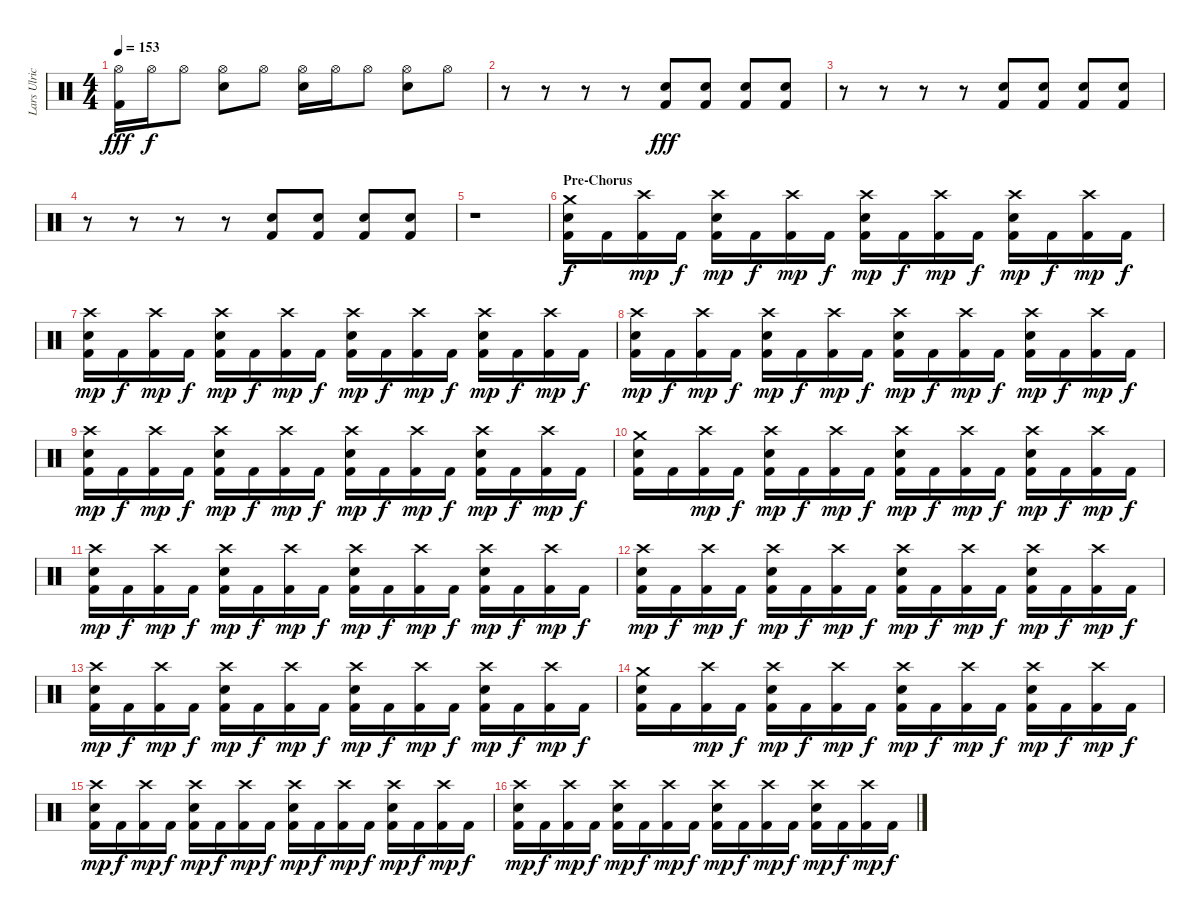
\track ("Lars Ulrich (Drums)" "Lars Ulric") {instrument percussion}
\staff {score}
\articulation defaults
\ts (4 4)
\tempo 153
\clef neutral
\ks c
("Hi-Hat (open)" "Kick (hit) 2").16{dy fff} "Hi-Hat (open)".16{dy f} "Hi-Hat (open)".8 ("Hi-Hat (open)" "Electric Snare (hit)").8 "Hi-Hat (open)".8 ("Hi-Hat (open)" "Electric Snare (hit)").16 "Hi-Hat (open)".16 "Hi-Hat (open)".8 ("Hi-Hat (open)" "Electric Snare (hit)").8 "Hi-Hat (open)".8 |
r.8 r.8 r.8 r.8 ("Electric Snare (hit)" "Kick (hit) 2").8{dy fff} ("Electric Snare (hit)" "Kick (hit) 2").8 ("Electric Snare (hit)" "Kick (hit) 2").8 ("Electric Snare (hit)" "Kick (hit) 2").8 |
r.8 r.8 r.8 r.8 ("Electric Snare (hit)" "Kick (hit) 2").8 ("Electric Snare (hit)" "Kick (hit) 2").8 ("Electric Snare (hit)" "Kick (hit) 2").8 ("Electric Snare (hit)" "Kick (hit) 2").8 |
r.8 r.8 r.8 r.8 ("Electric Snare (hit)" "Kick (hit) 2").8 ("Electric Snare (hit)" "Kick (hit) 2").8 ("Electric Snare (hit)" "Kick (hit) 2").8 ("Electric Snare (hit)" "Kick (hit) 2").8 |
r.1 |
\section ("" "Pre-Chorus")
("Crash medium (hit)" "Electric Snare (hit)" "Kick (hit) 2").16{dy f} "Kick (hit) 2".16 ("Crash high (hit)" "Kick (hit) 2").16{dy mp} "Kick (hit) 2".16{dy f} ("Crash high (hit)" "Electric Snare (hit)" "Kick (hit) 2").16{dy mp} "Kick (hit) 2".16{dy f} ("Crash high (hit)" "Kick (hit) 2").16{dy mp} "Kick (hit) 2".16{dy f} ("Crash high (hit)" "Electric Snare (hit)" "Kick (hit) 2").16{dy mp} "Kick (hit) 2".16{dy f} ("Crash high (hit)" "Kick (hit) 2").16{dy mp} "Kick (hit) 2".16{dy f} ("Crash high (hit)" "Electric Snare (hit)" "Kick (hit) 2").16{dy mp} "Kick (hit) 2".16{dy f} ("Crash high (hit)" "Kick (hit) 2").16{dy mp} "Kick (hit) 2".16{dy f} |
("Crash high (hit)" "Electric Snare (hit)" "Kick (hit) 2").16{dy mp} "Kick (hit) 2".16{dy f} ("Crash high (hit)" "Kick (hit) 2").16{dy mp} "Kick (hit) 2".16{dy f} ("Crash high (hit)" "Electric Snare (hit)" "Kick (hit) 2").16{dy mp} "Kick (hit) 2".16{dy f} ("Crash high (hit)" "Kick (hit) 2").16{dy mp} "Kick (hit) 2".16{dy f} ("Crash high (hit)" "Electric Snare (hit)" "Kick (hit) 2").16{dy mp} "Kick (hit) 2".16{dy f} ("Crash high (hit)" "Kick (hit) 2").16{dy mp} "Kick (hit) 2".16{dy f} ("Crash high (hit)" "Electric Snare (hit)" "Kick (hit) 2").16{dy mp} "Kick (hit) 2".16{dy f} ("Crash high (hit)" "Kick (hit) 2").16{dy mp} "Kick (hit) 2".16{dy f} |
("Crash high (hit)" "Electric Snare (hit)" "Kick (hit) 2").16{dy mp} "Kick (hit) 2".16{dy f} ("Crash high (hit)" "Kick (hit) 2").16{dy mp} "Kick (hit) 2".16{dy f} ("Crash high (hit)" "Electric Snare (hit)" "Kick (hit) 2").16{dy mp} "Kick (hit) 2".16{dy f} ("Crash high (hit)" "Kick (hit) 2").16{dy mp} "Kick (hit) 2".16{dy f} ("Crash high (hit)" "Electric Snare (hit)" "Kick (hit) 2").16{dy mp} "Kick (hit) 2".16{dy f} ("Crash high (hit)" "Kick (hit) 2").16{dy mp} "Kick (hit) 2".16{dy f} ("Crash high (hit)" "Electric Snare (hit)" "Kick (hit) 2").16{dy mp} "Kick (hit) 2".16{dy f} ("Crash high (hit)" "Kick (hit) 2").16{dy mp} "Kick (hit) 2".16{dy f} |
("Crash high (hit)" "Electric Snare (hit)" "Kick (hit) 2").16{dy mp} "Kick (hit) 2".16{dy f} ("Crash high (hit)" "Kick (hit) 2").16{dy mp} "Kick (hit) 2".16{dy f} ("Crash high (hit)" "Electric Snare (hit)" "Kick (hit) 2").16{dy mp} "Kick (hit) 2".16{dy f} ("Crash high (hit)" "Kick (hit) 2").16{dy mp} "Kick (hit) 2".16{dy f} ("Crash high (hit)" "Electric Snare (hit)" "Kick (hit) 2").16{dy mp} "Kick (hit) 2".16{dy f} ("Crash high (hit)" "Kick (hit) 2").16{dy mp} "Kick (hit) 2".16{dy f} ("Crash high (hit)" "Electric Snare (hit)" "Kick (hit) 2").16{dy mp} "Kick (hit) 2".16{dy f} ("Crash high (hit)" "Kick (hit) 2").16{dy mp} "Kick (hit) 2".16{dy f} |
("Crash medium (hit)" "Electric Snare (hit)" "Kick (hit) 2").16 "Kick (hit) 2".16 ("Crash high (hit)" "Kick (hit) 2").16{dy mp} "Kick (hit) 2".16{dy f} ("Crash high (hit)" "Electric Snare (hit)" "Kick (hit) 2").16{dy mp} "Kick (hit) 2".16{dy f} ("Crash high (hit)" "Kick (hit) 2").16{dy mp} "Kick (hit) 2".16{dy f} ("Crash high (hit)" "Electric Snare (hit)" "Kick (hit) 2").16{dy mp} "Kick (hit) 2".16{dy f} ("Crash high (hit)" "Kick (hit) 2").16{dy mp} "Kick (hit) 2".16{dy f} ("Crash high (hit)" "Electric Snare (hit)" "Kick (hit) 2").16{dy mp} "Kick (hit) 2".16{dy f} ("Crash high (hit)" "Kick (hit) 2").16{dy mp} "Kick (hit) 2".16{dy f} |
("Crash high (hit)" "Electric Snare (hit)" "Kick (hit) 2").16{dy mp} "Kick (hit) 2".16{dy f} ("Crash high (hit)" "Kick (hit) 2").16{dy mp} "Kick (hit) 2".16{dy f} ("Crash high (hit)" "Electric Snare (hit)" "Kick (hit) 2").16{dy mp} "Kick (hit) 2".16{dy f} ("Crash high (hit)" "Kick (hit) 2").16{dy mp} "Kick (hit) 2".16{dy f} ("Crash high (hit)" "Electric Snare (hit)" "Kick (hit) 2").16{dy mp} "Kick (hit) 2".16{dy f} ("Crash high (hit)" "Kick (hit) 2").16{dy mp} "Kick (hit) 2".16{dy f} ("Crash high (hit)" "Electric Snare (hit)" "Kick (hit) 2").16{dy mp} "Kick (hit) 2".16{dy f} ("Crash high (hit)" "Kick (hit) 2").16{dy mp} "Kick (hit) 2".16{dy f} |
("Crash high (hit)" "Electric Snare (hit)" "Kick (hit) 2").16{dy mp} "Kick (hit) 2".16{dy f} ("Crash high (hit)" "Kick (hit) 2").16{dy mp} "Kick (hit) 2".16{dy f} ("Crash high (hit)" "Electric Snare (hit)" "Kick (hit) 2").16{dy mp} "Kick (hit) 2".16{dy f} ("Crash high (hit)" "Kick (hit) 2").16{dy mp} "Kick (hit) 2".16{dy f} ("Crash high (hit)" "Electric Snare (hit)" "Kick (hit) 2").16{dy mp} "Kick (hit) 2".16{dy f} ("Crash high (hit)" "Kick (hit) 2").16{dy mp} "Kick (hit) 2".16{dy f} ("Crash high (hit)" "Electric Snare (hit)" "Kick (hit) 2").16{dy mp} "Kick (hit) 2".16{dy f} ("Crash high (hit)" "Kick (hit) 2").16{dy mp} "Kick (hit) 2".16{dy f} |
("Crash high (hit)" "Electric Snare (hit)" "Kick (hit) 2").16{dy mp} "Kick (hit) 2".16{dy f} ("Crash high (hit)" "Kick (hit) 2").16{dy mp} "Kick (hit) 2".16{dy f} ("Crash high (hit)" "Electric Snare (hit)" "Kick (hit) 2").16{dy mp} "Kick (hit) 2".16{dy f} ("Crash high (hit)" "Kick (hit) 2").16{dy mp} "Kick (hit) 2".16{dy f} ("Crash high (hit)" "Electric Snare (hit)" "Kick (hit) 2").16{dy mp} "Kick (hit) 2".16{dy f} ("Crash high (hit)" "Kick (hit) 2").16{dy mp} "Kick (hit) 2".16{dy f} ("Crash high (hit)" "Electric Snare (hit)" "Kick (hit) 2").16{dy mp} "Kick (hit) 2".16{dy f} ("Crash high (hit)" "Kick (hit) 2").16{dy mp} "Kick (hit) 2".16{dy f} |
("Crash medium (hit)" "Electric Snare (hit)" "Kick (hit) 2").16 "Kick (hit) 2".16 ("Crash high (hit)" "Kick (hit) 2").16{dy mp} "Kick (hit) 2".16{dy f} ("Crash high (hit)" "Electric Snare (hit)" "Kick (hit) 2").16{dy mp} "Kick (hit) 2".16{dy f} ("Crash high (hit)" "Kick (hit) 2").16{dy mp} "Kick (hit) 2".16{dy f} ("Crash high (hit)" "Electric Snare (hit)" "Kick (hit) 2").16{dy mp} "Kick (hit) 2".16{dy f} ("Crash high (hit)" "Kick (hit) 2").16{dy mp} "Kick (hit) 2".16{dy f} ("Crash high (hit)" "Electric Snare (hit)" "Kick (hit) 2").16{dy mp} "Kick (hit) 2".16{dy f} ("Crash high (hit)" "Kick (hit) 2").16{dy mp} "Kick (hit) 2".16{dy f} |
("Crash high (hit)" "Electric Snare (hit)" "Kick (hit) 2").16{dy mp} "Kick (hit) 2".16{dy f} ("Crash high (hit)" "Kick (hit) 2").16{dy mp} "Kick (hit) 2".16{dy f} ("Crash high (hit)" "Electric Snare (hit)" "Kick (hit) 2").16{dy mp} "Kick (hit) 2".16{dy f} ("Crash high (hit)" "Kick (hit) 2").16{dy mp} "Kick (hit) 2".16{dy f} ("Crash high (hit)" "Electric Snare (hit)" "Kick (hit) 2").16{dy mp} "Kick (hit) 2".16{dy f} ("Crash high (hit)" "Kick (hit) 2").16{dy mp} "Kick (hit) 2".16{dy f} ("Crash high (hit)" "Electric Snare (hit)" "Kick (hit) 2").16{dy mp} "Kick (hit) 2".16{dy f} ("Crash high (hit)" "Kick (hit) 2").16{dy mp} "Kick (hit) 2".16{dy f} |
("Crash high (hit)" "Electric Snare (hit)" "Kick (hit) 2").16{dy mp} "Kick (hit) 2".16{dy f} ("Crash high (hit)" "Kick (hit) 2").16{dy mp} "Kick (hit) 2".16{dy f} ("Crash high (hit)" "Electric Snare (hit)" "Kick (hit) 2").16{dy mp} "Kick (hit) 2".16{dy f} ("Crash high (hit)" "Kick (hit) 2").16{dy mp} "Kick (hit) 2".16{dy f} ("Crash high (hit)" "Electric Snare (hit)" "Kick (hit) 2").16{dy mp} "Kick (hit) 2".16{dy f} ("Crash high (hit)" "Kick (hit) 2").16{dy mp} "Kick (hit) 2".16{dy f} ("Crash high (hit)" "Electric Snare (hit)" "Kick (hit) 2").16{dy mp} "Kick (hit) 2".16{dy f} ("Crash high (hit)" "Kick (hit) 2").16{dy mp} "Kick (hit) 2".16{dy f}
